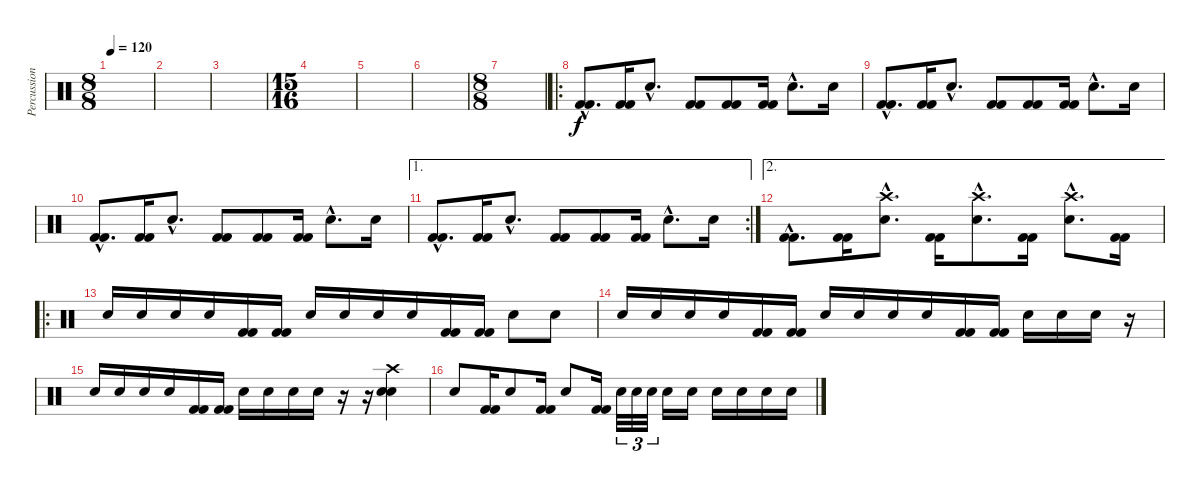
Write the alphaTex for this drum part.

\track ("Percussions" "Percussion") {instrument percussion}
\staff {score}
\articulation defaults
\ts (8 8)
\tempo 120
\clef neutral
\ks c
|
|
|
\ts (15 16)
|
|
|
\ts (8 8)
|
\ro
("Kick (hit) 2"{hac} "Kick (hit) 2"{hac}).8{d} ("Kick (hit) 2" "Kick (hit) 2").16 "Electric Snare (hit)"{hac}.8{d} ("Kick (hit) 2" "Kick (hit) 2").8 ("Kick (hit) 2" "Kick (hit) 2").8 ("Kick (hit) 2" "Kick (hit) 2").16 "Electric Snare (hit)"{hac}.8{d} "Electric Snare (hit)".16 |
("Kick (hit) 2"{hac} "Kick (hit) 2"{hac}).8{d} ("Kick (hit) 2" "Kick (hit) 2").16 "Electric Snare (hit)"{hac}.8{d} ("Kick (hit) 2" "Kick (hit) 2").8 ("Kick (hit) 2" "Kick (hit) 2").8 ("Kick (hit) 2" "Kick (hit) 2").16 "Electric Snare (hit)"{hac}.8{d} "Electric Snare (hit)".16 |
("Kick (hit) 2"{hac} "Kick (hit) 2"{hac}).8{d} ("Kick (hit) 2" "Kick (hit) 2").16 "Electric Snare (hit)"{hac}.8{d} ("Kick (hit) 2" "Kick (hit) 2").8 ("Kick (hit) 2" "Kick (hit) 2").8 ("Kick (hit) 2" "Kick (hit) 2").16 "Electric Snare (hit)"{hac}.8{d} "Electric Snare (hit)".16 |
\ae 1
\rc 2
("Kick (hit) 2"{hac} "Kick (hit) 2"{hac}).8{d} ("Kick (hit) 2" "Kick (hit) 2").16 "Electric Snare (hit)"{hac}.8{d} ("Kick (hit) 2" "Kick (hit) 2").8 ("Kick (hit) 2" "Kick (hit) 2").8 ("Kick (hit) 2" "Kick (hit) 2").16 "Electric Snare (hit)"{hac}.8{d} "Electric Snare (hit)".16 |
\ae 2
("Kick (hit) 2"{hac} "Kick (hit) 2"{hac}).8{d} ("Kick (hit) 2" "Kick (hit) 2").16 ("Electric Snare (hit)"{hac} "Crash high (hit)"{hac}).8{d} ("Kick (hit) 2" "Kick (hit) 2").16 ("Electric Snare (hit)"{hac} "Crash high (hit)"{hac}).8{d} ("Kick (hit) 2" "Kick (hit) 2").16 ("Electric Snare (hit)"{hac} "Crash high (hit)"{hac}).8{d} ("Kick (hit) 2" "Kick (hit) 2").16 |
\ro "Electric Snare (hit)".16 "Electric Snare (hit)".16 "Electric Snare (hit)".16 "Electric Snare (hit)".16
("Kick (hit) 2" "Kick (hit) 2").16 ("Kick (hit) 2" "Kick (hit) 2").16 "Electric Snare (hit)".16 "Electric Snare (hit)".16 "Electric Snare (hit)".16 "Electric Snare (hit)".16 ("Kick (hit) 2" "Kick (hit) 2").16 ("Kick (hit) 2" "Kick (hit) 2").16 "Electric Snare (hit)".8 "Electric Snare (hit)".8 |
"Electric Snare (hit)".16 "Electric Snare (hit)".16 "Electric Snare (hit)".16 "Electric Snare (hit)".16 ("Kick (hit) 2" "Kick (hit) 2").16 ("Kick (hit) 2" "Kick (hit) 2").16 "Electric Snare (hit)".16 "Electric Snare (hit)".16 "Electric Snare (hit)".16 "Electric Snare (hit)".16 ("Kick (hit) 2" "Kick (hit) 2").16 ("Kick (hit) 2" "Kick (hit) 2").16 "Electric Snare (hit)".16 "Electric Snare (hit)".16 "Electric Snare (hit)".16 r.16 |
"Electric Snare (hit)".16 "Electric Snare (hit)".16 "Electric Snare (hit)".16 "Electric Snare (hit)".16 ("Kick (hit) 2" "Kick (hit) 2").16 ("Kick (hit) 2" "Kick (hit) 2").16 "Electric Snare (hit)".16 "Electric Snare (hit)".16 "Electric Snare (hit)".16 "Electric Snare (hit)".16 r.16 r.16 ("Electric Snare (hit)" "Electric Snare (hit)" "Crash high (hit)").4 |
"Electric Snare (hit)".8 ("Kick (hit) 2" "Kick (hit) 2").16 "Electric Snare (hit)".8 ("Kick (hit) 2" "Kick (hit) 2").16 "Electric Snare (hit)".8 ("Kick (hit) 2" "Kick (hit) 2").16 "Electric Snare (hit)".32{tu (3 2)} "Electric Snare (hit)".32{tu (3 2)} "Electric Snare (hit)".32{tu (3 2)} "Electric Snare (hit)".16 "Electric Snare (hit)".16 "Electric Snare (hit)".16 "Electric Snare (hit)".16 "Electric Snare (hit)".16 "Electric Snare (hit)".16
